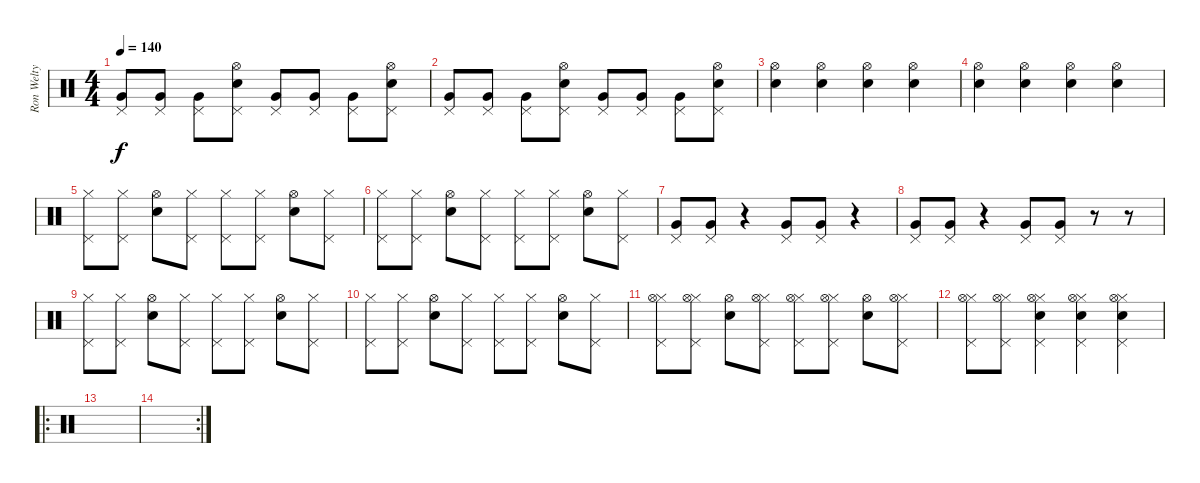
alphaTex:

\track ("Ron Welty - Bateria" "Ron Welty ") {instrument percussion}
\staff {score}
\articulation defaults
\ts (4 4)
\tempo 140
\clef neutral
\ks c
("Very Low Tom (hit)" "Pedal Hi-Hat (hit)").8{dy f} ("Very Low Tom (hit)" "Pedal Hi-Hat (hit)").8 ("Very Low Tom (hit)" "Pedal Hi-Hat (hit)").8 ("Electric Snare (hit)" "Pedal Hi-Hat (hit)" "Hi-Hat (open)").8 ("Very Low Tom (hit)" "Pedal Hi-Hat (hit)").8 ("Very Low Tom (hit)" "Pedal Hi-Hat (hit)").8 ("Very Low Tom (hit)" "Pedal Hi-Hat (hit)").8 ("Electric Snare (hit)" "Pedal Hi-Hat (hit)" "Hi-Hat (open)").8 |
("Very Low Tom (hit)" "Pedal Hi-Hat (hit)").8 ("Very Low Tom (hit)" "Pedal Hi-Hat (hit)").8 ("Very Low Tom (hit)" "Pedal Hi-Hat (hit)").8 ("Electric Snare (hit)" "Pedal Hi-Hat (hit)" "Hi-Hat (open)").8 ("Very Low Tom (hit)" "Pedal Hi-Hat (hit)").8 ("Very Low Tom (hit)" "Pedal Hi-Hat (hit)").8 ("Very Low Tom (hit)" "Pedal Hi-Hat (hit)").8 ("Electric Snare (hit)" "Pedal Hi-Hat (hit)" "Hi-Hat (open)").8 |
("Hi-Hat (open)" "Electric Snare (hit)").4 ("Hi-Hat (open)" "Electric Snare (hit)").4 ("Hi-Hat (open)" "Electric Snare (hit)").4 ("Hi-Hat (open)" "Electric Snare (hit)").4 |
("Hi-Hat (open)" "Electric Snare (hit)").4 ("Hi-Hat (open)" "Electric Snare (hit)").4 ("Hi-Hat (open)" "Electric Snare (hit)").4 ("Hi-Hat (open)" "Electric Snare (hit)").4 |
("Pedal Hi-Hat (hit)" "Hi-Hat (closed)").8 ("Pedal Hi-Hat (hit)" "Hi-Hat (closed)").8 ("Electric Snare (hit)" "Hi-Hat (open)").8 ("Pedal Hi-Hat (hit)" "Hi-Hat (closed)").8 ("Pedal Hi-Hat (hit)" "Hi-Hat (closed)").8 ("Pedal Hi-Hat (hit)" "Hi-Hat (closed)").8 ("Electric Snare (hit)" "Hi-Hat (open)").8 ("Pedal Hi-Hat (hit)" "Hi-Hat (closed)").8 |
("Pedal Hi-Hat (hit)" "Hi-Hat (closed)").8 ("Pedal Hi-Hat (hit)" "Hi-Hat (closed)").8 ("Electric Snare (hit)" "Hi-Hat (open)").8 ("Pedal Hi-Hat (hit)" "Hi-Hat (closed)").8 ("Pedal Hi-Hat (hit)" "Hi-Hat (closed)").8 ("Pedal Hi-Hat (hit)" "Hi-Hat (closed)").8 ("Electric Snare (hit)" "Hi-Hat (open)").8 ("Pedal Hi-Hat (hit)" "Hi-Hat (closed)").8 |
("Pedal Hi-Hat (hit)" "Very Low Tom (hit)").8 ("Pedal Hi-Hat (hit)" "Very Low Tom (hit)").8 r.4 ("Pedal Hi-Hat (hit)" "Very Low Tom (hit)").8 ("Pedal Hi-Hat (hit)" "Very Low Tom (hit)").8 r.4 |
("Pedal Hi-Hat (hit)" "Very Low Tom (hit)").8 ("Pedal Hi-Hat (hit)" "Very Low Tom (hit)").8 r.4 ("Pedal Hi-Hat (hit)" "Very Low Tom (hit)").8 ("Pedal Hi-Hat (hit)" "Very Low Tom (hit)").8 r.8 r.8 |
("Pedal Hi-Hat (hit)" "Hi-Hat (closed)").8 ("Pedal Hi-Hat (hit)" "Hi-Hat (closed)").8 ("Electric Snare (hit)" "Hi-Hat (open)").8 ("Pedal Hi-Hat (hit)" "Hi-Hat (closed)").8 ("Pedal Hi-Hat (hit)" "Hi-Hat (closed)").8 ("Pedal Hi-Hat (hit)" "Hi-Hat (closed)").8 ("Electric Snare (hit)" "Hi-Hat (open)").8 ("Pedal Hi-Hat (hit)" "Hi-Hat (closed)").8 |
("Pedal Hi-Hat (hit)" "Hi-Hat (closed)").8 ("Pedal Hi-Hat (hit)" "Hi-Hat (closed)").8 ("Electric Snare (hit)" "Hi-Hat (open)").8 ("Pedal Hi-Hat (hit)" "Hi-Hat (closed)").8 ("Pedal Hi-Hat (hit)" "Hi-Hat (closed)").8 ("Pedal Hi-Hat (hit)" "Hi-Hat (closed)").8 ("Electric Snare (hit)" "Hi-Hat (open)").8 ("Pedal Hi-Hat (hit)" "Hi-Hat (closed)").8 |
("Pedal Hi-Hat (hit)" "Hi-Hat (closed)" "Hi-Hat (open)").8 ("Pedal Hi-Hat (hit)" "Hi-Hat (closed)" "Hi-Hat (open)").8 ("Electric Snare (hit)" "Hi-Hat (open)").8 ("Pedal Hi-Hat (hit)" "Hi-Hat (closed)" "Hi-Hat (open)").8 ("Pedal Hi-Hat (hit)" "Hi-Hat (closed)" "Hi-Hat (open)").8 ("Pedal Hi-Hat (hit)" "Hi-Hat (closed)" "Hi-Hat (open)").8 ("Electric Snare (hit)" "Hi-Hat (open)").8 ("Pedal Hi-Hat (hit)" "Hi-Hat (closed)" "Hi-Hat (open)").8 |
("Pedal Hi-Hat (hit)" "Hi-Hat (closed)" "Hi-Hat (open)").8 ("Pedal Hi-Hat (hit)" "Hi-Hat (closed)" "Hi-Hat (open)").8 ("Hi-Hat (closed)" "Electric Snare (hit)" "Pedal Hi-Hat (hit)" "Hi-Hat (open)").4 ("Hi-Hat (closed)" "Electric Snare (hit)" "Pedal Hi-Hat (hit)" "Hi-Hat (open)").4 ("Hi-Hat (closed)" "Electric Snare (hit)" "Pedal Hi-Hat (hit)" "Hi-Hat (open)").4 |
\ro
|
\rc 2
